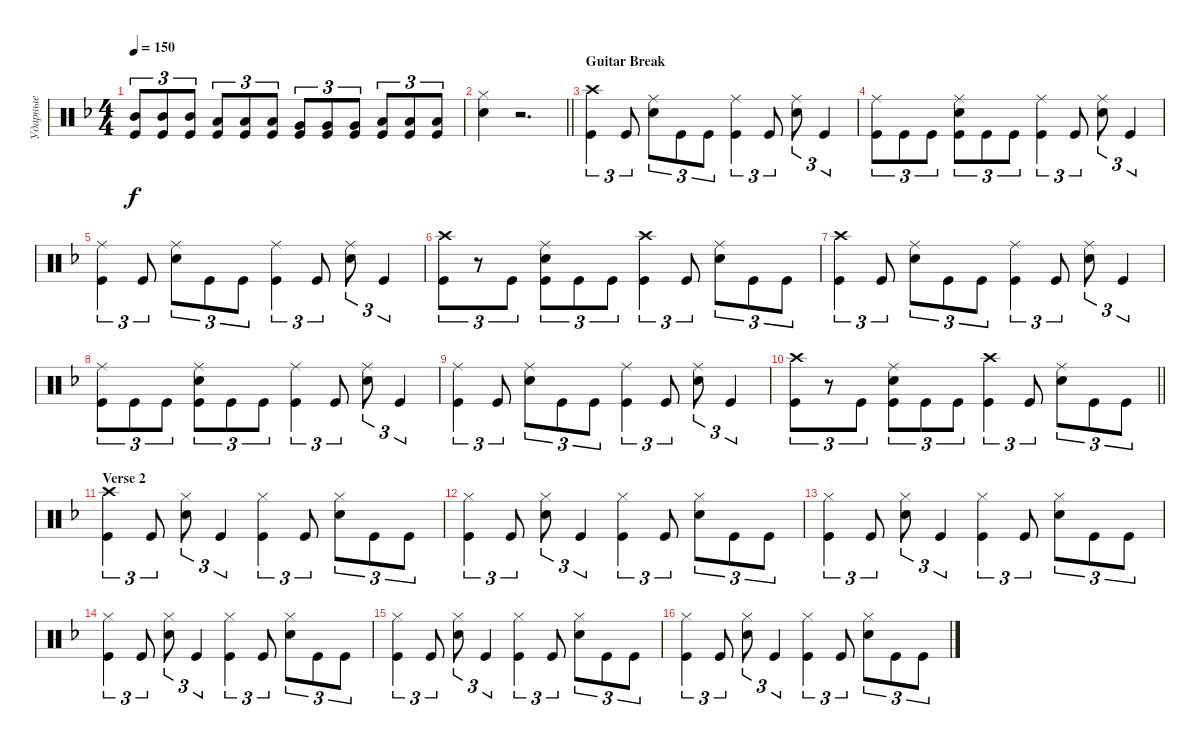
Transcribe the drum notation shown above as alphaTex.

\track ("Ударные" "Ударные") {instrument percussion}
\staff {score}
\articulation defaults
\ts (4 4)
\tempo 150
\clef neutral
\ks dminor
("Mid Tom (hit)" "Kick (hit)").8{tu (3 2) dy f} ("Mid Tom (hit)" "Kick (hit)").8{tu (3 2)} ("Mid Tom (hit)" "Kick (hit)").8{tu (3 2)} ("Low Tom (hit)" "Kick (hit)").8{tu (3 2)} ("Low Tom (hit)" "Kick (hit)").8{tu (3 2)} ("Low Tom (hit)" "Kick (hit)").8{tu (3 2)} ("Very Low Tom (hit)" "Kick (hit)").8{tu (3 2)} ("Kick (hit)" "Very Low Tom (hit)").8{tu (3 2)} ("Very Low Tom (hit)" "Kick (hit)").8{tu (3 2)} ("Low Floor Tom (hit)" "Kick (hit)").8{tu (3 2)} ("Low Floor Tom (hit)" "Kick (hit)").8{tu (3 2)} ("Low Floor Tom (hit)" "Kick (hit)").8{tu (3 2)} |
\barLineRight lightlight
("Snare (hit) 2" "Hi-Hat (closed)").4 r.2{d} |
\section ("" "Guitar Break")
("Kick (hit)" "Crash high (hit)").4{tu (3 2)} "Kick (hit)".8{tu (3 2)} ("Snare (hit) 2" "Ride (middle)").8{tu (3 2)} "Kick (hit)".8{tu (3 2)} "Kick (hit)".8{tu (3 2)} ("Kick (hit)" "Ride (middle)").4{tu (3 2)} "Kick (hit)".8{tu (3 2)} ("Snare (hit) 2" "Ride (middle)").8{tu (3 2)} "Kick (hit)".4{tu (3 2)} |
("Kick (hit)" "Ride (middle)").8{tu (3 2)} "Kick (hit)".8{tu (3 2)} "Kick (hit)".8{tu (3 2)} ("Kick (hit)" "Snare (hit) 2" "Ride (middle)").8{tu (3 2)} "Kick (hit)".8{tu (3 2)} "Kick (hit)".8{tu (3 2)} ("Kick (hit)" "Ride (middle)").4{tu (3 2)} "Kick (hit)".8{tu (3 2)} ("Snare (hit) 2" "Ride (middle)").8{tu (3 2)} "Kick (hit)".4{tu (3 2)} |
("Kick (hit)" "Ride (middle)").4{tu (3 2)} "Kick (hit)".8{tu (3 2)} ("Snare (hit) 2" "Ride (middle)").8{tu (3 2)} "Kick (hit)".8{tu (3 2)} "Kick (hit)".8{tu (3 2)} ("Kick (hit)" "Ride (middle)").4{tu (3 2)} "Kick (hit)".8{tu (3 2)} ("Snare (hit) 2" "Ride (middle)").8{tu (3 2)} "Kick (hit)".4{tu (3 2)} |
("Kick (hit)" "Crash high (hit)").8{tu (3 2)} r.8{tu (3 2)} "Kick (hit)".8{tu (3 2)} ("Kick (hit)" "Snare (hit) 2" "Ride (middle)").8{tu (3 2)} "Kick (hit)".8{tu (3 2)} "Kick (hit)".8{tu (3 2)} ("Kick (hit)" "Crash high (hit)").4{tu (3 2)} "Kick (hit)".8{tu (3 2)} ("Snare (hit) 2" "Ride (middle)").8{tu (3 2)} "Kick (hit)".8{tu (3 2)} "Kick (hit)".8{tu (3 2)} |
("Kick (hit)" "Crash high (hit)").4{tu (3 2)} "Kick (hit)".8{tu (3 2)} ("Snare (hit) 2" "Ride (middle)").8{tu (3 2)} "Kick (hit)".8{tu (3 2)} "Kick (hit)".8{tu (3 2)} ("Kick (hit)" "Ride (middle)").4{tu (3 2)} "Kick (hit)".8{tu (3 2)} ("Snare (hit) 2" "Ride (middle)").8{tu (3 2)} "Kick (hit)".4{tu (3 2)} |
("Kick (hit)" "Ride (middle)").8{tu (3 2)} "Kick (hit)".8{tu (3 2)} "Kick (hit)".8{tu (3 2)} ("Kick (hit)" "Snare (hit) 2" "Ride (middle)").8{tu (3 2)} "Kick (hit)".8{tu (3 2)} "Kick (hit)".8{tu (3 2)} ("Kick (hit)" "Ride (middle)").4{tu (3 2)} "Kick (hit)".8{tu (3 2)} ("Snare (hit) 2" "Ride (middle)").8{tu (3 2)} "Kick (hit)".4{tu (3 2)} |
("Kick (hit)" "Ride (middle)").4{tu (3 2)} "Kick (hit)".8{tu (3 2)} ("Snare (hit) 2" "Ride (middle)").8{tu (3 2)} "Kick (hit)".8{tu (3 2)} "Kick (hit)".8{tu (3 2)} ("Kick (hit)" "Ride (middle)").4{tu (3 2)} "Kick (hit)".8{tu (3 2)} ("Snare (hit) 2" "Ride (middle)").8{tu (3 2)} "Kick (hit)".4{tu (3 2)} |
\barLineRight lightlight
("Kick (hit)" "Crash high (hit)").8{tu (3 2)} r.8{tu (3 2)} "Kick (hit)".8{tu (3 2)} ("Kick (hit)" "Snare (hit) 2" "Ride (middle)").8{tu (3 2)} "Kick (hit)".8{tu (3 2)} "Kick (hit)".8{tu (3 2)} ("Kick (hit)" "Crash high (hit)").4{tu (3 2)} "Kick (hit)".8{tu (3 2)} ("Snare (hit) 2" "Ride (middle)").8{tu (3 2)} "Kick (hit)".8{tu (3 2)} "Kick (hit)".8{tu (3 2)} |
\section ("" "Verse 2")
("Kick (hit)" "Crash high (hit)").4{tu (3 2)} "Kick (hit)".8{tu (3 2)} ("Snare (hit) 2" "Hi-Hat (closed)").8{tu (3 2)} "Kick (hit)".4{tu (3 2)} ("Kick (hit)" "Hi-Hat (closed)").4{tu (3 2)} "Kick (hit)".8{tu (3 2)} ("Snare (hit) 2" "Hi-Hat (closed)").8{tu (3 2)} "Kick (hit)".8{tu (3 2)} "Kick (hit)".8{tu (3 2)} |
("Kick (hit)" "Hi-Hat (closed)").4{tu (3 2)} "Kick (hit)".8{tu (3 2)} ("Snare (hit) 2" "Hi-Hat (closed)").8{tu (3 2)} "Kick (hit)".4{tu (3 2)} ("Kick (hit)" "Hi-Hat (closed)").4{tu (3 2)} "Kick (hit)".8{tu (3 2)} ("Snare (hit) 2" "Hi-Hat (closed)").8{tu (3 2)} "Kick (hit)".8{tu (3 2)} "Kick (hit)".8{tu (3 2)} |
("Kick (hit)" "Hi-Hat (closed)").4{tu (3 2)} "Kick (hit)".8{tu (3 2)} ("Snare (hit) 2" "Hi-Hat (closed)").8{tu (3 2)} "Kick (hit)".4{tu (3 2)} ("Kick (hit)" "Hi-Hat (closed)").4{tu (3 2)} "Kick (hit)".8{tu (3 2)} ("Snare (hit) 2" "Hi-Hat (closed)").8{tu (3 2)} "Kick (hit)".8{tu (3 2)} "Kick (hit)".8{tu (3 2)} |
("Kick (hit)" "Hi-Hat (closed)").4{tu (3 2)} "Kick (hit)".8{tu (3 2)} ("Snare (hit) 2" "Hi-Hat (closed)").8{tu (3 2)} "Kick (hit)".4{tu (3 2)} ("Kick (hit)" "Hi-Hat (closed)").4{tu (3 2)} "Kick (hit)".8{tu (3 2)} ("Snare (hit) 2" "Hi-Hat (closed)").8{tu (3 2)} "Kick (hit)".8{tu (3 2)} "Kick (hit)".8{tu (3 2)} |
("Kick (hit)" "Hi-Hat (closed)").4{tu (3 2)} "Kick (hit)".8{tu (3 2)} ("Snare (hit) 2" "Hi-Hat (closed)").8{tu (3 2)} "Kick (hit)".4{tu (3 2)} ("Kick (hit)" "Hi-Hat (closed)").4{tu (3 2)} "Kick (hit)".8{tu (3 2)} ("Snare (hit) 2" "Hi-Hat (closed)").8{tu (3 2)} "Kick (hit)".8{tu (3 2)} "Kick (hit)".8{tu (3 2)} |
("Kick (hit)" "Hi-Hat (closed)").4{tu (3 2)} "Kick (hit)".8{tu (3 2)} ("Snare (hit) 2" "Hi-Hat (closed)").8{tu (3 2)} "Kick (hit)".4{tu (3 2)} ("Kick (hit)" "Hi-Hat (closed)").4{tu (3 2)} "Kick (hit)".8{tu (3 2)} ("Snare (hit) 2" "Hi-Hat (closed)").8{tu (3 2)} "Kick (hit)".8{tu (3 2)} "Kick (hit)".8{tu (3 2)}
